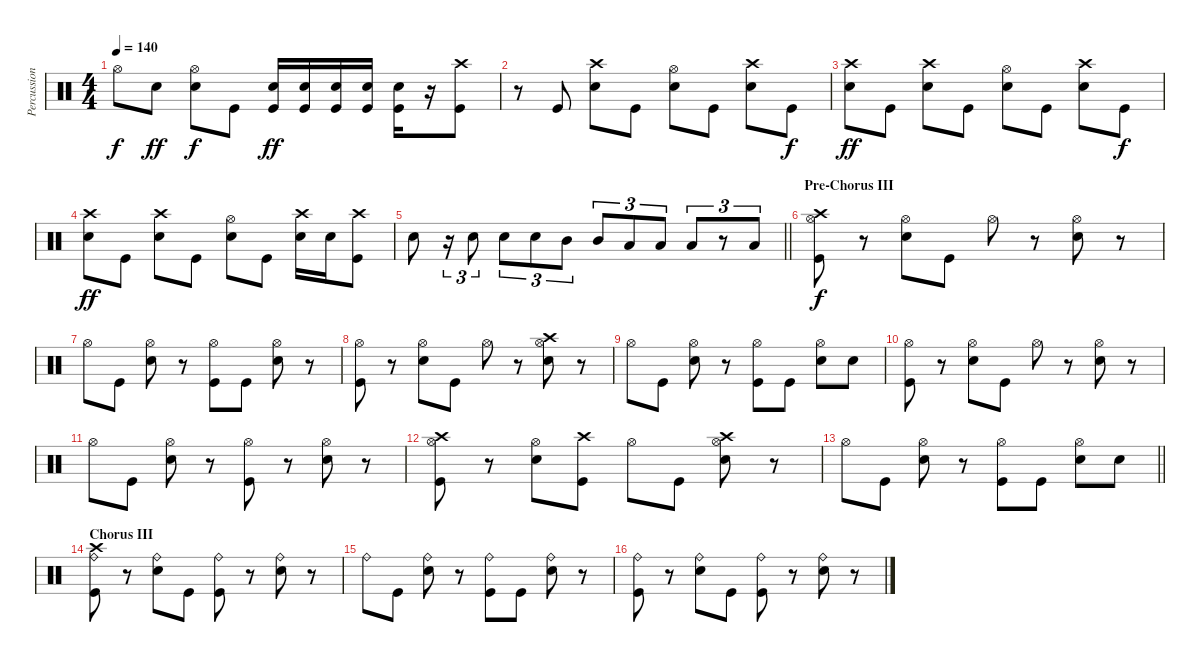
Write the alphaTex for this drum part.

\track ("Percussion" "Percussion") {instrument percussion}
\staff {score}
\articulation defaults
\ts (4 4)
\tempo 140
\clef neutral
\ks c "Hi-Hat (open)".8{dy f} "Snare (hit) 2".8{dy ff}
("Hi-Hat (open)" "Snare (hit) 2").8{dy f} "Kick (hit)".8 ("Snare (hit) 2" "Kick (hit)").16{dy ff} ("Snare (hit) 2" "Kick (hit)").16 ("Snare (hit) 2" "Kick (hit)").16 ("Snare (hit) 2" "Kick (hit)").16 ("Snare (hit) 2" "Kick (hit)").16 r.16 ("Crash high (hit)" "Kick (hit)").8 |
r.8 "Kick (hit)".8 ("Crash high (hit)" "Snare (hit) 2").8 "Kick (hit)".8 ("Hi-Hat (open)" "Snare (hit) 2").8 "Kick (hit)".8 ("Crash high (hit)" "Snare (hit) 2").8 "Kick (hit)".8{dy f} |
("Crash high (hit)" "Snare (hit) 2").8{dy ff} "Kick (hit)".8 ("Crash high (hit)" "Snare (hit) 2").8 "Kick (hit)".8 ("Hi-Hat (open)" "Snare (hit) 2").8 "Kick (hit)".8 ("Crash high (hit)" "Snare (hit) 2").8 "Kick (hit)".8{dy f} |
("Crash high (hit)" "Snare (hit) 2").8{dy ff} "Kick (hit)".8 ("Crash high (hit)" "Snare (hit) 2").8 "Kick (hit)".8 ("Hi-Hat (open)" "Snare (hit) 2").8 "Kick (hit)".8 ("Crash high (hit)" "Snare (hit) 2").16 "Snare (hit) 2".16 ("Crash high (hit)" "Kick (hit)").8 |
\barLineRight lightlight "Snare (hit) 2".8
r.16{tu (3 2)} "Snare (hit) 2".8{tu (3 2)} "Snare (hit) 2".8{tu (3 2)} "Snare (hit) 2".8{tu (3 2)} "Mid Tom (hit)".8{tu (3 2)} "Mid Tom (hit)".8{tu (3 2)} "Low Tom (hit)".8{tu (3 2)} "Low Tom (hit)".8{tu (3 2)} "Low Floor Tom (hit)".8{tu (3 2)} r.8{tu (3 2)} "Low Floor Tom (hit)".8{tu (3 2)} |
\section ("" "Pre-Chorus III")
("Crash high (hit)" "Hi-Hat (open)" "Kick (hit)").8{dy f} r.8 ("Hi-Hat (open)" "Snare (hit) 2").8 "Kick (hit)".8 "Hi-Hat (open)".8 r.8 ("Hi-Hat (open)" "Snare (hit) 2").8 r.8 |
"Hi-Hat (open)".8 "Kick (hit)".8 ("Hi-Hat (open)" "Snare (hit) 2").8 r.8 ("Hi-Hat (open)" "Kick (hit)").8 "Kick (hit)".8 ("Hi-Hat (open)" "Snare (hit) 2").8 r.8 |
("Hi-Hat (open)" "Kick (hit)").8 r.8 ("Hi-Hat (open)" "Snare (hit) 2").8 "Kick (hit)".8 "Hi-Hat (open)".8 r.8 ("Crash high (hit)" "Hi-Hat (open)" "Snare (hit) 2").8 r.8 |
"Hi-Hat (open)".8 "Kick (hit)".8 ("Hi-Hat (open)" "Snare (hit) 2").8 r.8 ("Hi-Hat (open)" "Kick (hit)").8 "Kick (hit)".8 ("Hi-Hat (open)" "Snare (hit) 2").8 "Snare (hit) 2".8 |
("Hi-Hat (open)" "Kick (hit)").8 r.8 ("Hi-Hat (open)" "Snare (hit) 2").8 "Kick (hit)".8 "Hi-Hat (open)".8 r.8 ("Hi-Hat (open)" "Snare (hit) 2").8 r.8 |
"Hi-Hat (open)".8 "Kick (hit)".8 ("Hi-Hat (open)" "Snare (hit) 2").8 r.8 ("Hi-Hat (open)" "Kick (hit)").8 r.8 ("Hi-Hat (open)" "Snare (hit) 2").8 r.8 |
("Crash high (hit)" "Hi-Hat (open)" "Kick (hit)").8 r.8 ("Hi-Hat (open)" "Snare (hit) 2").8 ("Crash high (hit)" "Kick (hit)").8 "Hi-Hat (open)".8 "Kick (hit)".8 ("Crash high (hit)" "Hi-Hat (open)" "Snare (hit) 2").8 r.8 |
\barLineRight lightlight "Hi-Hat (open)".8 "Kick (hit)".8
("Hi-Hat (open)" "Snare (hit) 2").8 r.8 ("Hi-Hat (open)" "Kick (hit)").8 "Kick (hit)".8 ("Hi-Hat (open)" "Snare (hit) 2").8 "Snare (hit) 2".8 |
\section ("" "Chorus III")
("Crash high (hit)" "Ride (bell)" "Kick (hit)").8 r.8 ("Ride (bell)" "Snare (hit) 2").8 "Kick (hit)".8 ("Ride (bell)" "Kick (hit)").8 r.8 ("Ride (bell)" "Snare (hit) 2").8 r.8 |
"Ride (bell)".8 "Kick (hit)".8 ("Ride (bell)" "Snare (hit) 2").8 r.8 ("Ride (bell)" "Kick (hit)").8 "Kick (hit)".8 ("Ride (bell)" "Snare (hit) 2").8 r.8 |
("Ride (bell)" "Kick (hit)").8 r.8 ("Ride (bell)" "Snare (hit) 2").8 "Kick (hit)".8 ("Ride (bell)" "Kick (hit)").8 r.8 ("Ride (bell)" "Snare (hit) 2").8 r.8
